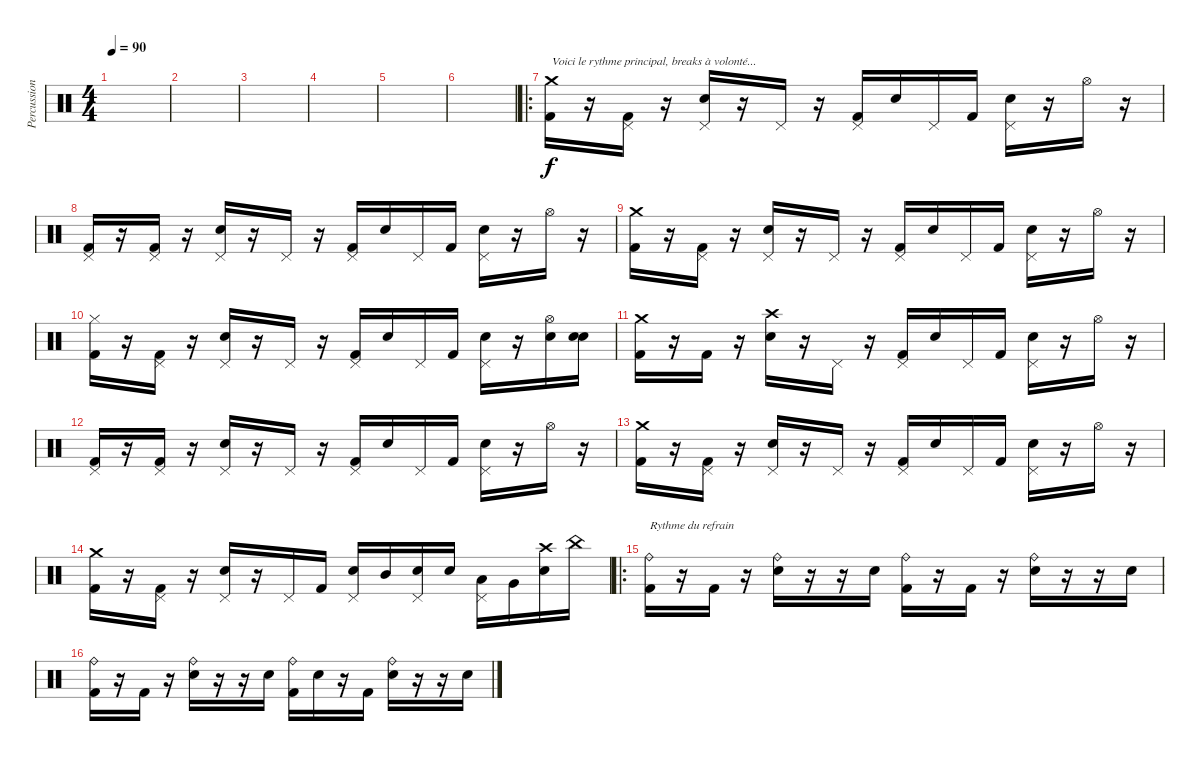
\track ("Percussions" "Percussion") {instrument percussion}
\staff {score}
\articulation defaults
\ts (4 4)
\tempo 90
\clef neutral
\ks c
|
|
|
|
|
|
\ro
("Crash medium (hit)" "Kick (hit) 2").16{txt "Voici le rythme principal, breaks à volonté..."} r.16 ("Pedal Hi-Hat (hit)" "Kick (hit) 2").16 r.16 ("Pedal Hi-Hat (hit)" "Electric Snare (hit)").16 r.16 "Pedal Hi-Hat (hit)".16 r.16 ("Pedal Hi-Hat (hit)" "Kick (hit) 2").16 "Electric Snare (hit)".16 "Pedal Hi-Hat (hit)".16 "Kick (hit) 2".16 ("Pedal Hi-Hat (hit)" "Electric Snare (hit)").16 r.16 "Hi-Hat (open)".16 r.16 |
("Pedal Hi-Hat (hit)" "Kick (hit) 2").16 r.16 ("Pedal Hi-Hat (hit)" "Kick (hit) 2").16 r.16 ("Pedal Hi-Hat (hit)" "Electric Snare (hit)").16 r.16 "Pedal Hi-Hat (hit)".16 r.16 ("Pedal Hi-Hat (hit)" "Kick (hit) 2").16 "Electric Snare (hit)".16 "Pedal Hi-Hat (hit)".16 "Kick (hit) 2".16 ("Pedal Hi-Hat (hit)" "Electric Snare (hit)").16 r.16 "Hi-Hat (open)".16 r.16 |
("Crash medium (hit)" "Kick (hit) 2").16 r.16 ("Pedal Hi-Hat (hit)" "Kick (hit) 2").16 r.16 ("Pedal Hi-Hat (hit)" "Electric Snare (hit)").16 r.16 "Pedal Hi-Hat (hit)".16 r.16 ("Pedal Hi-Hat (hit)" "Kick (hit) 2").16 "Electric Snare (hit)".16 "Pedal Hi-Hat (hit)".16 "Kick (hit) 2".16 ("Pedal Hi-Hat (hit)" "Electric Snare (hit)").16 r.16 "Hi-Hat (open)".16 r.16 |
("Hi-Hat (closed)" "Kick (hit) 2").16 r.16 ("Pedal Hi-Hat (hit)" "Kick (hit) 2").16 r.16 ("Pedal Hi-Hat (hit)" "Electric Snare (hit)").16 r.16 "Pedal Hi-Hat (hit)".16 r.16 ("Pedal Hi-Hat (hit)" "Kick (hit) 2").16 "Electric Snare (hit)".16 "Pedal Hi-Hat (hit)".16 "Kick (hit) 2".16 ("Pedal Hi-Hat (hit)" "Electric Snare (hit)").16 r.16 ("Hi-Hat (open)" "Electric Snare (hit)").16 ("Electric Snare (hit)" "Snare (hit)").16 |
("Crash medium (hit)" "Kick (hit) 2").16 r.16 "Kick (hit) 2".16 r.16 ("Crash high (hit)" "Electric Snare (hit)").16 r.16 "Pedal Hi-Hat (hit)".16 r.16 ("Pedal Hi-Hat (hit)" "Kick (hit) 2").16 "Electric Snare (hit)".16 "Pedal Hi-Hat (hit)".16 "Kick (hit) 2".16 ("Pedal Hi-Hat (hit)" "Electric Snare (hit)").16 r.16 "Hi-Hat (open)".16 r.16 |
("Pedal Hi-Hat (hit)" "Kick (hit) 2").16 r.16 ("Pedal Hi-Hat (hit)" "Kick (hit) 2").16 r.16 ("Pedal Hi-Hat (hit)" "Electric Snare (hit)").16 r.16 "Pedal Hi-Hat (hit)".16 r.16 ("Pedal Hi-Hat (hit)" "Kick (hit) 2").16 "Electric Snare (hit)".16 "Pedal Hi-Hat (hit)".16 "Kick (hit) 2".16 ("Pedal Hi-Hat (hit)" "Electric Snare (hit)").16 r.16 "Hi-Hat (open)".16 r.16 |
("Crash medium (hit)" "Kick (hit) 2").16 r.16 ("Pedal Hi-Hat (hit)" "Kick (hit) 2").16 r.16 ("Pedal Hi-Hat (hit)" "Electric Snare (hit)").16 r.16 "Pedal Hi-Hat (hit)".16 r.16 ("Pedal Hi-Hat (hit)" "Kick (hit) 2").16 "Electric Snare (hit)".16 "Pedal Hi-Hat (hit)".16 "Kick (hit) 2".16 ("Pedal Hi-Hat (hit)" "Electric Snare (hit)").16 r.16 "Hi-Hat (open)".16 r.16 |
("Crash medium (hit)" "Kick (hit) 2").16 r.16 ("Pedal Hi-Hat (hit)" "Kick (hit) 2").16 r.16 ("Pedal Hi-Hat (hit)" "Electric Snare (hit)").16 r.16 "Pedal Hi-Hat (hit)".16 "Kick (hit) 2".16 ("Pedal Hi-Hat (hit)" "Electric Snare (hit)").16 "Mid Tom (hit)".16 ("Pedal Hi-Hat (hit)" "Electric Snare (hit)").16 "Electric Snare (hit)".16 ("Pedal Hi-Hat (hit)" "Low Tom (hit)").16 "Very Low Tom (hit)".16 ("Crash high (hit)" "Electric Snare (hit)").16 "China (hit)".16 |
\ro
("Ride (bell)" "Kick (hit) 2").16{txt "Rythme du refrain"} r.16 "Kick (hit) 2".16 r.16 ("Ride (bell)" "Electric Snare (hit)").16 r.16 r.16 "Electric Snare (hit)".16 ("Ride (bell)" "Kick (hit) 2").16 r.16 "Kick (hit) 2".16 r.16 ("Ride (bell)" "Electric Snare (hit)").16 r.16 r.16 "Electric Snare (hit)".16 |
("Ride (bell)" "Kick (hit) 2").16 r.16 "Kick (hit) 2".16 r.16 ("Ride (bell)" "Electric Snare (hit)").16 r.16 r.16 "Electric Snare (hit)".16 ("Ride (bell)" "Kick (hit) 2").16 "Electric Snare (hit)".16 r.16 "Kick (hit) 2".16 ("Ride (bell)" "Electric Snare (hit)").16 r.16 r.16 "Electric Snare (hit)".16
